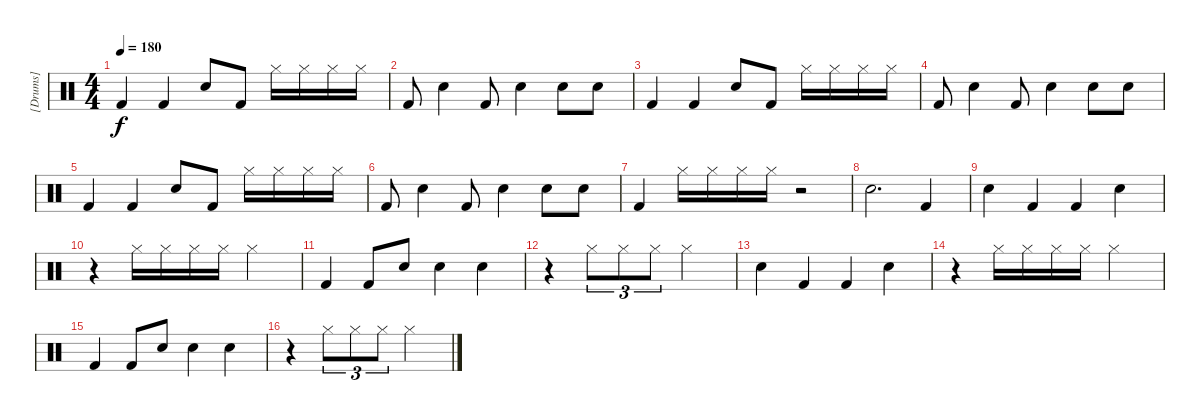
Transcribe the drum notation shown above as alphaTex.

\track ("[Drums]" "[Drums]") {instrument percussion}
\staff {score}
\articulation defaults
\ts (4 4)
\tempo 180
\clef neutral
\ks c "Kick (hit) 2".4{dy f} "Kick (hit) 2".4 "Electric Snare (hit)".8 "Kick (hit) 2".8 "Hi-Hat (closed)".16 "Hi-Hat (closed)".16 "Hi-Hat (closed)".16 "Hi-Hat (closed)".16
|
"Kick (hit) 2".8 "Electric Snare (hit)".4 "Kick (hit) 2".8 "Electric Snare (hit)".4 "Electric Snare (hit)".8 "Electric Snare (hit)".8 |
"Kick (hit) 2".4 "Kick (hit) 2".4 "Electric Snare (hit)".8 "Kick (hit) 2".8 "Hi-Hat (closed)".16 "Hi-Hat (closed)".16 "Hi-Hat (closed)".16 "Hi-Hat (closed)".16 |
"Kick (hit) 2".8 "Electric Snare (hit)".4 "Kick (hit) 2".8 "Electric Snare (hit)".4 "Electric Snare (hit)".8 "Electric Snare (hit)".8 |
"Kick (hit) 2".4 "Kick (hit) 2".4 "Electric Snare (hit)".8 "Kick (hit) 2".8 "Hi-Hat (closed)".16 "Hi-Hat (closed)".16 "Hi-Hat (closed)".16 "Hi-Hat (closed)".16 |
"Kick (hit) 2".8 "Electric Snare (hit)".4 "Kick (hit) 2".8 "Electric Snare (hit)".4 "Electric Snare (hit)".8 "Electric Snare (hit)".8 |
"Kick (hit) 2".4 "Hi-Hat (closed)".16 "Hi-Hat (closed)".16 "Hi-Hat (closed)".16 "Hi-Hat (closed)".16 r.2 |
"Electric Snare (hit)".2{d} "Kick (hit) 2".4 |
"Electric Snare (hit)".4 "Kick (hit) 2".4 "Kick (hit) 2".4 "Electric Snare (hit)".4 |
r.4 "Hi-Hat (closed)".16 "Hi-Hat (closed)".16 "Hi-Hat (closed)".16 "Hi-Hat (closed)".16 "Hi-Hat (closed)".2 |
"Kick (hit) 2".4 "Kick (hit) 2".8 "Electric Snare (hit)".8 "Electric Snare (hit)".4 "Electric Snare (hit)".4 |
r.4 "Hi-Hat (closed)".8{tu (3 2)} "Hi-Hat (closed)".8{tu (3 2)} "Hi-Hat (closed)".8{tu (3 2)} "Hi-Hat (closed)".2 |
"Electric Snare (hit)".4 "Kick (hit) 2".4 "Kick (hit) 2".4 "Electric Snare (hit)".4 |
r.4 "Hi-Hat (closed)".16 "Hi-Hat (closed)".16 "Hi-Hat (closed)".16 "Hi-Hat (closed)".16 "Hi-Hat (closed)".2 |
"Kick (hit) 2".4 "Kick (hit) 2".8 "Electric Snare (hit)".8 "Electric Snare (hit)".4 "Electric Snare (hit)".4 |
r.4 "Hi-Hat (closed)".8{tu (3 2)} "Hi-Hat (closed)".8{tu (3 2)} "Hi-Hat (closed)".8{tu (3 2)} "Hi-Hat (closed)".2
